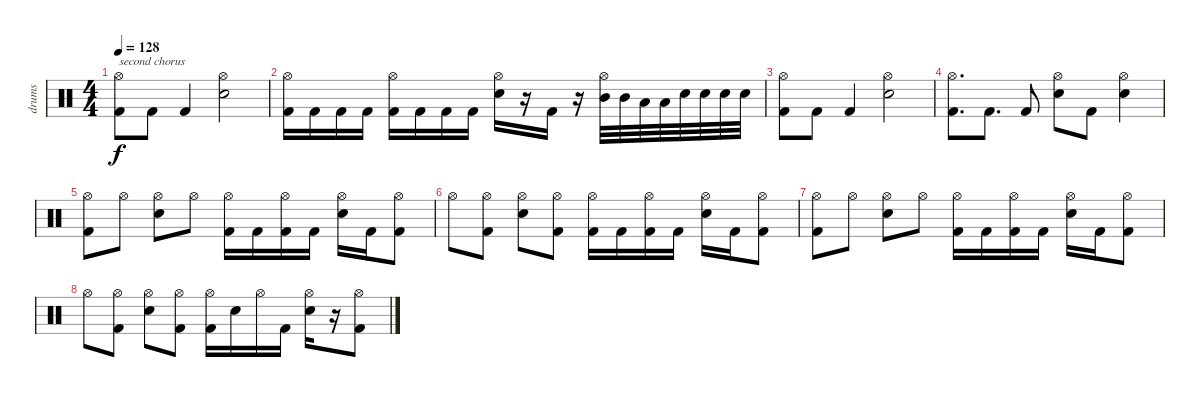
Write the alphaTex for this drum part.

\track ("drums" "drums") {instrument percussion}
\staff {score}
\articulation defaults
\ts (4 4)
\tempo 128
\clef neutral
\ks c
("Hi-Hat (open)" "Kick (hit) 2").8{txt "second chorus" dy f} "Kick (hit) 2".8 "Kick (hit) 2".4 ("Hi-Hat (open)" "Snare (hit) 2").2 |
("Hi-Hat (open)" "Kick (hit) 2").16 "Kick (hit) 2".16 "Kick (hit) 2".16 "Kick (hit) 2".16 ("Hi-Hat (open)" "Kick (hit) 2").16 "Kick (hit) 2".16 "Kick (hit) 2".16 "Kick (hit) 2".16 ("Hi-Hat (open)" "Snare (hit) 2").16 r.16 "Kick (hit) 2".16 r.16 ("Hi-Hat (open)" "Mid Tom (hit)").32 "Mid Tom (hit)".32 "Low Tom (hit)".32 "Low Tom (hit)".32 "Snare (hit) 2".32 "Snare (hit) 2".32 "Snare (hit) 2".32 "Snare (hit) 2".32 |
("Hi-Hat (open)" "Kick (hit) 2").8 "Kick (hit) 2".8 "Kick (hit) 2".4 ("Hi-Hat (open)" "Snare (hit) 2").2 |
("Hi-Hat (open)" "Kick (hit) 2").8{d} "Kick (hit) 2".8{d} "Kick (hit) 2".8 ("Hi-Hat (open)" "Snare (hit) 2").8 "Kick (hit) 2".8 ("Hi-Hat (open)" "Snare (hit) 2").4 |
("Hi-Hat (open)" "Kick (hit) 2").8 "Hi-Hat (open)".8 ("Hi-Hat (open)" "Snare (hit) 2").8 "Hi-Hat (open)".8 ("Hi-Hat (open)" "Kick (hit) 2").16 "Kick (hit) 2".16 ("Hi-Hat (open)" "Kick (hit) 2").16 "Kick (hit) 2".16 ("Hi-Hat (open)" "Snare (hit) 2").16 "Kick (hit) 2".16 ("Hi-Hat (open)" "Kick (hit) 2").8 |
"Hi-Hat (open)".8 ("Hi-Hat (open)" "Kick (hit) 2").8 ("Hi-Hat (open)" "Snare (hit) 2").8 ("Hi-Hat (open)" "Kick (hit) 2").8 ("Hi-Hat (open)" "Kick (hit) 2").16 "Kick (hit) 2".16 ("Hi-Hat (open)" "Kick (hit) 2").16 "Kick (hit) 2".16 ("Hi-Hat (open)" "Snare (hit) 2").16 "Kick (hit) 2".16 ("Hi-Hat (open)" "Kick (hit) 2").8 |
("Hi-Hat (open)" "Kick (hit) 2").8 "Hi-Hat (open)".8 ("Hi-Hat (open)" "Snare (hit) 2").8 "Hi-Hat (open)".8 ("Hi-Hat (open)" "Kick (hit) 2").16 "Kick (hit) 2".16 ("Hi-Hat (open)" "Kick (hit) 2").16 "Kick (hit) 2".16 ("Hi-Hat (open)" "Snare (hit) 2").16 "Kick (hit) 2".16 ("Hi-Hat (open)" "Kick (hit) 2").8 |
"Hi-Hat (open)".8 ("Hi-Hat (open)" "Kick (hit) 2").8 ("Hi-Hat (open)" "Snare (hit) 2").8 ("Hi-Hat (open)" "Kick (hit) 2").8 ("Hi-Hat (open)" "Kick (hit) 2").16 "Snare (hit) 2".16 "Hi-Hat (open)".16 "Kick (hit) 2".16 ("Hi-Hat (open)" "Snare (hit) 2").16 r.16 ("Hi-Hat (open)" "Kick (hit) 2").8
